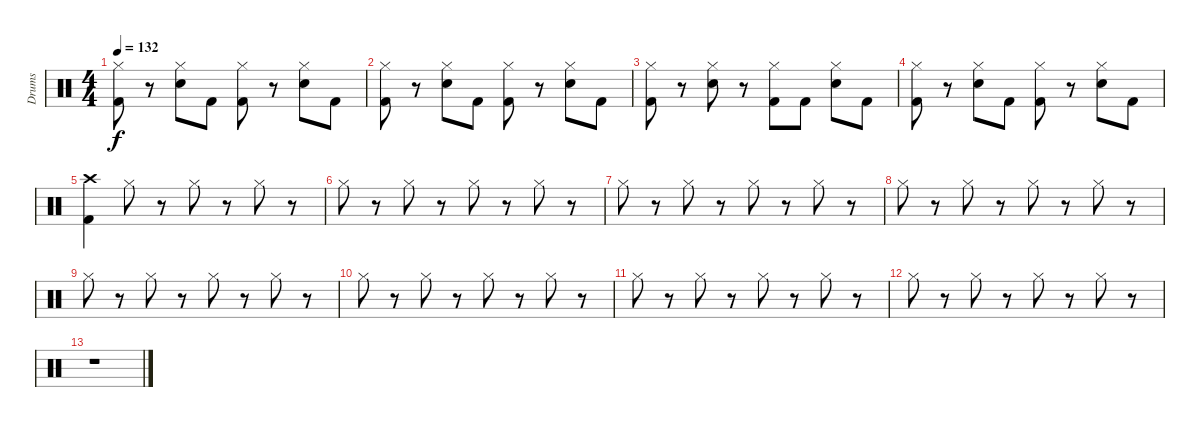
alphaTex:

\track ("Drums" "Drums") {instrument percussion}
\staff {score}
\articulation defaults
\ts (4 4)
\tempo 132
\clef neutral
\ks c
("Hi-Hat (closed)" "Kick (hit) 2").8{dy f} r.8 ("Electric Snare (hit)" "Hi-Hat (closed)").8 "Kick (hit) 2".8 ("Kick (hit) 2" "Hi-Hat (closed)").8 r.8 ("Electric Snare (hit)" "Hi-Hat (closed)").8 "Kick (hit) 2".8 |
("Hi-Hat (closed)" "Kick (hit) 2").8 r.8 ("Hi-Hat (closed)" "Electric Snare (hit)").8 "Kick (hit) 2".8 ("Hi-Hat (closed)" "Kick (hit) 2").8 r.8 ("Hi-Hat (closed)" "Electric Snare (hit)").8 "Kick (hit) 2".8 |
("Hi-Hat (closed)" "Kick (hit) 2").8 r.8 ("Hi-Hat (closed)" "Electric Snare (hit)").8 r.8 ("Hi-Hat (closed)" "Kick (hit) 2").8 "Kick (hit) 2".8 ("Hi-Hat (closed)" "Electric Snare (hit)").8 "Kick (hit) 2".8 |
("Kick (hit) 2" "Hi-Hat (closed)").8 r.8 ("Hi-Hat (closed)" "Electric Snare (hit)").8 "Kick (hit) 2".8 ("Hi-Hat (closed)" "Kick (hit) 2").8 r.8 ("Hi-Hat (closed)" "Electric Snare (hit)").8 "Kick (hit) 2".8 |
("Crash high (hit)" "Kick (hit) 2").4 "Hi-Hat (closed)".8 r.8 "Hi-Hat (closed)".8 r.8 "Hi-Hat (closed)".8 r.8 |
"Hi-Hat (closed)".8 r.8 "Hi-Hat (closed)".8 r.8 "Hi-Hat (closed)".8 r.8 "Hi-Hat (closed)".8 r.8 |
"Hi-Hat (closed)".8 r.8 "Hi-Hat (closed)".8 r.8 "Hi-Hat (closed)".8 r.8 "Hi-Hat (closed)".8 r.8 |
"Hi-Hat (closed)".8 r.8 "Hi-Hat (closed)".8 r.8 "Hi-Hat (closed)".8 r.8 "Hi-Hat (closed)".8 r.8 |
"Hi-Hat (closed)".8 r.8 "Hi-Hat (closed)".8 r.8 "Hi-Hat (closed)".8 r.8 "Hi-Hat (closed)".8 r.8 |
"Hi-Hat (closed)".8 r.8 "Hi-Hat (closed)".8 r.8 "Hi-Hat (closed)".8 r.8 "Hi-Hat (closed)".8 r.8 |
"Hi-Hat (closed)".8 r.8 "Hi-Hat (closed)".8 r.8 "Hi-Hat (closed)".8 r.8 "Hi-Hat (closed)".8 r.8 |
"Hi-Hat (closed)".8 r.8 "Hi-Hat (closed)".8 r.8 "Hi-Hat (closed)".8 r.8 "Hi-Hat (closed)".8 r.8 |
r.1
